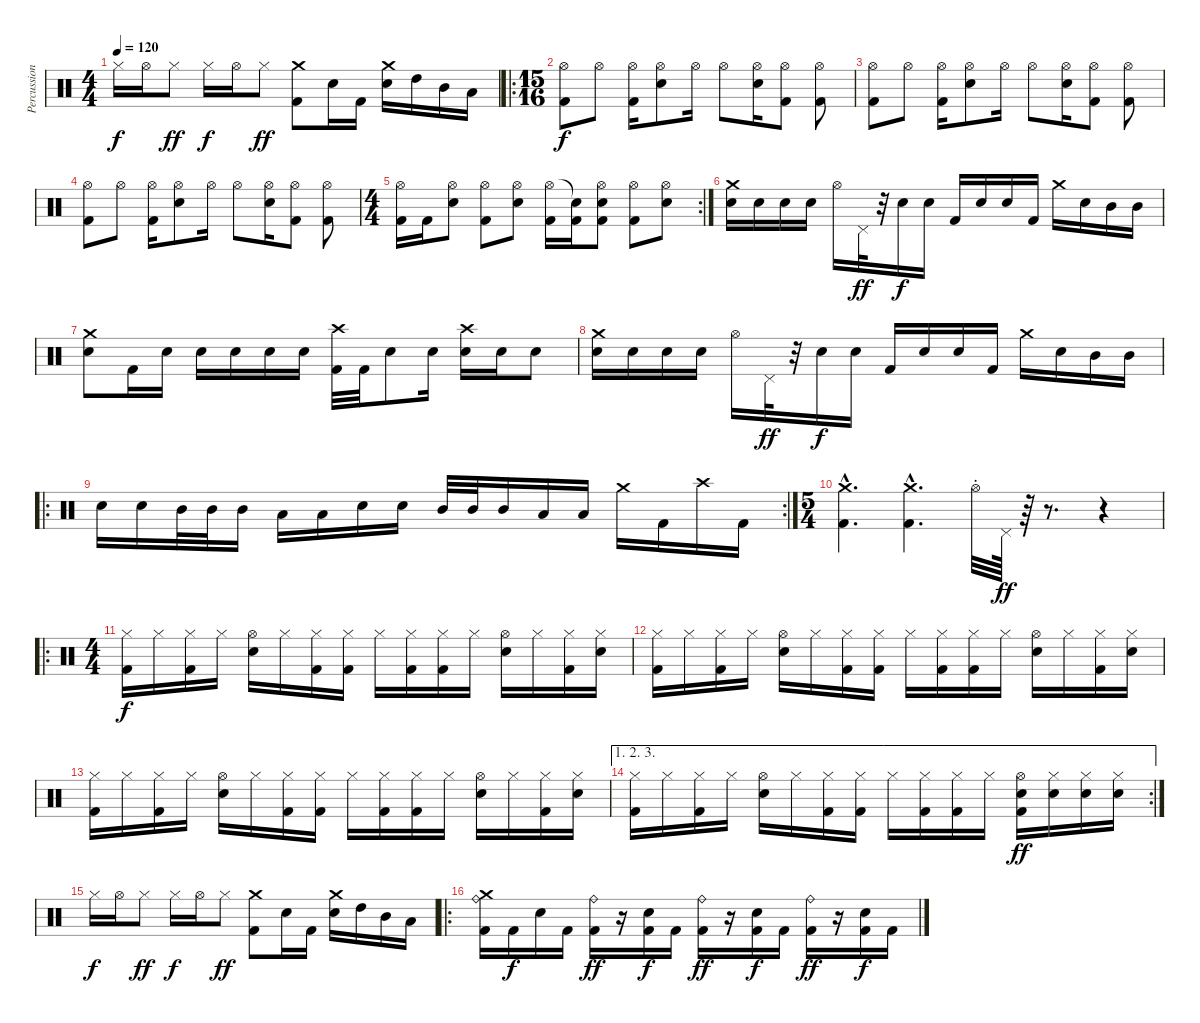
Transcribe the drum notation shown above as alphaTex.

\track ("Percussion" "Percussion") {instrument percussion}
\staff {score}
\articulation defaults
\ts (4 4)
\tempo 120
\clef neutral
\ks c "Hi-Hat (closed)".16{dy f} "Hi-Hat (open)".16 "Hi-Hat (closed)".8{dy ff} "Hi-Hat (closed)".16{dy f} "Hi-Hat (open)".16 "Hi-Hat (closed)".8{dy ff}
("Crash medium (hit)" "Kick (hit) 2").8 "Snare (hit) 2".16 "Kick (hit) 2".16 ("Crash medium (hit)" "Snare (hit) 2").16 "High Tom (hit)".16 "Mid Tom (hit)".16 "Low Tom (hit)".16 |
\ro
\ts (15 16)
("Hi-Hat (open)" "Kick (hit) 2").8{dy f} "Hi-Hat (open)".8 ("Hi-Hat (open)" "Kick (hit) 2").16 ("Hi-Hat (open)" "Snare (hit) 2").8 "Hi-Hat (open)".16 "Hi-Hat (open)".8 ("Hi-Hat (open)" "Snare (hit) 2").16 ("Hi-Hat (open)" "Kick (hit) 2").8 ("Hi-Hat (open)" "Kick (hit) 2").8 |
("Hi-Hat (open)" "Kick (hit) 2").8 "Hi-Hat (open)".8 ("Hi-Hat (open)" "Kick (hit) 2").16 ("Hi-Hat (open)" "Snare (hit) 2").8 "Hi-Hat (open)".16 "Hi-Hat (open)".8 ("Hi-Hat (open)" "Snare (hit) 2").16 ("Hi-Hat (open)" "Kick (hit) 2").8 ("Hi-Hat (open)" "Kick (hit) 2").8 |
("Hi-Hat (open)" "Kick (hit) 2").8 "Hi-Hat (open)".8 ("Hi-Hat (open)" "Kick (hit) 2").16 ("Hi-Hat (open)" "Snare (hit) 2").8 "Hi-Hat (open)".16 "Hi-Hat (open)".8 ("Hi-Hat (open)" "Snare (hit) 2").16 ("Hi-Hat (open)" "Kick (hit) 2").8 ("Hi-Hat (open)" "Kick (hit) 2").8 |
\rc 2
\ts (4 4)
("Hi-Hat (open)" "Kick (hit) 2").16 "Kick (hit) 2".16 ("Hi-Hat (open)" "Snare (hit) 2").8 ("Hi-Hat (open)" "Kick (hit) 2").8 ("Hi-Hat (open)" "Snare (hit) 2").8 ("Hi-Hat (open)" "Kick (hit) 2").16 ("Snare (hit)"{t} "Kick (hit) 2").16 ("Hi-Hat (open)" "Snare (hit) 2" "Kick (hit) 2").8 ("Hi-Hat (open)" "Kick (hit) 2").8 ("Hi-Hat (open)" "Snare (hit) 2").8 |
("Crash medium (hit)" "Snare (hit) 2").16 "Snare (hit) 2".16 "Snare (hit) 2".16 "Snare (hit) 2".16 "Hi-Hat (open)".16 "Pedal Hi-Hat (hit)".32{dy ff} r.32 "Snare (hit) 2".16{dy f} "Snare (hit) 2".16 "Kick (hit) 2".16 "Snare (hit) 2".16 "Snare (hit) 2".16 "Kick (hit) 2".16 "Crash medium (hit)".16 "Snare (hit) 2".16 "Mid Tom (hit)".16 "Mid Tom (hit)".16 |
("Crash medium (hit)" "Snare (hit) 2").8 "Kick (hit) 2".16 "Snare (hit) 2".16 "Snare (hit) 2".16 "Snare (hit) 2".16 "Snare (hit) 2".16 "Snare (hit) 2".16 ("Crash high (hit)" "Kick (hit) 2").32 "Kick (hit) 2".32 "Snare (hit) 2".8 "Snare (hit) 2".16 ("Crash high (hit)" "Snare (hit) 2").16 "Snare (hit) 2".16 "Snare (hit) 2".8 |
("Crash medium (hit)" "Snare (hit) 2").16 "Snare (hit) 2".16 "Snare (hit) 2".16 "Snare (hit) 2".16 "Hi-Hat (open)".16 "Pedal Hi-Hat (hit)".32{dy ff} r.32 "Snare (hit) 2".16{dy f} "Snare (hit) 2".16 "Kick (hit) 2".16 "Snare (hit) 2".16 "Snare (hit) 2".16 "Kick (hit) 2".16 "Crash medium (hit)".16 "Snare (hit) 2".16 "Mid Tom (hit)".16 "Mid Tom (hit)".16 |
\ro
\rc 2 "Snare (hit) 2".16 "Snare (hit) 2".16 "Mid Tom (hit)".32 "Mid Tom (hit)".32 "Mid Tom (hit)".16 "Low Tom (hit)".16 "Low Tom (hit)".16 "Snare (hit) 2".16 "Snare (hit) 2".16 "Mid Tom (hit)".32 "Mid Tom (hit)".32 "Mid Tom (hit)".16 "Low Tom (hit)".16 "Low Tom (hit)".16 "Crash medium (hit)".16 "Kick (hit) 2".16 "Crash high (hit)".16 "Kick (hit) 2".16
|
\ts (5 4)
("Crash medium (hit)"{hac} "Kick (hit) 2"{hac}).4{d} ("Crash medium (hit)"{hac} "Kick (hit) 2"{hac}).4{d} "Hi-Hat (open)"{st}.32 "Pedal Hi-Hat (hit)".64{dy ff} r.64 r.8{d} r.4 |
\ro
\ts (4 4)
("Hi-Hat (closed)" "Kick (hit) 2").16{dy f} "Hi-Hat (closed)".16 ("Hi-Hat (closed)" "Kick (hit) 2").16 "Hi-Hat (closed)".16 ("Hi-Hat (open)" "Snare (hit) 2").16 "Hi-Hat (closed)".16 ("Hi-Hat (closed)" "Kick (hit) 2").16 ("Hi-Hat (closed)" "Kick (hit) 2").16 "Hi-Hat (closed)".16 ("Hi-Hat (closed)" "Kick (hit) 2").16 ("Hi-Hat (closed)" "Kick (hit) 2").16 "Hi-Hat (closed)".16 ("Hi-Hat (open)" "Snare (hit) 2").16 "Hi-Hat (closed)".16 ("Hi-Hat (closed)" "Kick (hit) 2").16 ("Hi-Hat (closed)" "Snare (hit) 2").16 |
("Hi-Hat (closed)" "Kick (hit) 2").16 "Hi-Hat (closed)".16 ("Hi-Hat (closed)" "Kick (hit) 2").16 "Hi-Hat (closed)".16 ("Hi-Hat (open)" "Snare (hit) 2").16 "Hi-Hat (closed)".16 ("Hi-Hat (closed)" "Kick (hit) 2").16 ("Hi-Hat (closed)" "Kick (hit) 2").16 "Hi-Hat (closed)".16 ("Hi-Hat (closed)" "Kick (hit) 2").16 ("Hi-Hat (closed)" "Kick (hit) 2").16 "Hi-Hat (closed)".16 ("Hi-Hat (open)" "Snare (hit) 2").16 "Hi-Hat (closed)".16 ("Hi-Hat (closed)" "Kick (hit) 2").16 ("Hi-Hat (closed)" "Snare (hit) 2").16 |
("Hi-Hat (closed)" "Kick (hit) 2").16 "Hi-Hat (closed)".16 ("Hi-Hat (closed)" "Kick (hit) 2").16 "Hi-Hat (closed)".16 ("Hi-Hat (open)" "Snare (hit) 2").16 "Hi-Hat (closed)".16 ("Hi-Hat (closed)" "Kick (hit) 2").16 ("Hi-Hat (closed)" "Kick (hit) 2").16 "Hi-Hat (closed)".16 ("Hi-Hat (closed)" "Kick (hit) 2").16 ("Hi-Hat (closed)" "Kick (hit) 2").16 "Hi-Hat (closed)".16 ("Hi-Hat (open)" "Snare (hit) 2").16 "Hi-Hat (closed)".16 ("Hi-Hat (closed)" "Kick (hit) 2").16 ("Hi-Hat (closed)" "Snare (hit) 2").16 |
\ae (1 2 3)
\rc 2
("Hi-Hat (closed)" "Kick (hit) 2").16 "Hi-Hat (closed)".16 ("Hi-Hat (closed)" "Kick (hit) 2").16 "Hi-Hat (closed)".16 ("Hi-Hat (open)" "Snare (hit) 2").16 "Hi-Hat (closed)".16 ("Hi-Hat (closed)" "Kick (hit) 2").16 ("Hi-Hat (closed)" "Kick (hit) 2").16 "Hi-Hat (closed)".16 ("Hi-Hat (closed)" "Kick (hit) 2").16 ("Hi-Hat (closed)" "Kick (hit) 2").16 "Hi-Hat (closed)".16 ("Hi-Hat (open)" "Snare (hit) 2" "Kick (hit) 2").16{dy ff} ("Hi-Hat (closed)" "Snare (hit) 2").16 ("Hi-Hat (closed)" "Snare (hit) 2").16 ("Hi-Hat (closed)" "Snare (hit) 2").16 |
"Hi-Hat (closed)".16{dy f} "Hi-Hat (open)".16 "Hi-Hat (closed)".8{dy ff} "Hi-Hat (closed)".16{dy f} "Hi-Hat (open)".16 "Hi-Hat (closed)".8{dy ff} ("Crash medium (hit)" "Kick (hit) 2").8 "Snare (hit) 2".16 "Kick (hit) 2".16 ("Crash medium (hit)" "Snare (hit) 2").16 "High Tom (hit)".16 "Mid Tom (hit)".16 "Low Tom (hit)".16 |
\ro
("Ride (bell)" "Crash medium (hit)" "Kick (hit) 2").16 "Kick (hit) 2".16{dy f} "Snare (hit) 2".16 "Kick (hit) 2".16 ("Ride (bell)" "Kick (hit) 2").16{dy ff} r.16 ("Snare (hit) 2" "Kick (hit) 2").16{dy f} "Kick (hit) 2".16 ("Ride (bell)" "Kick (hit) 2").16{dy ff} r.16 ("Snare (hit) 2" "Kick (hit) 2").16{dy f} "Kick (hit) 2".16 ("Ride (bell)" "Kick (hit) 2").16{dy ff} r.16 ("Snare (hit) 2" "Kick (hit) 2").16{dy f} "Kick (hit) 2".16
